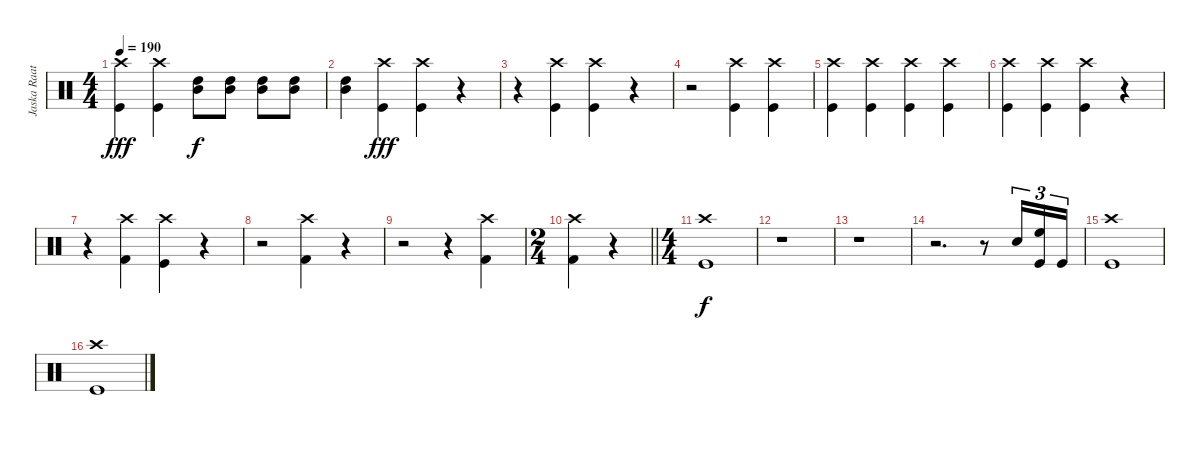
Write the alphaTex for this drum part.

\track ("Jaska Raatikainen" "Jaska Raat") {instrument percussion}
\staff {score}
\articulation defaults
\ts (4 4)
\tempo 190
\clef neutral
\ks c
("Crash high (hit)" "Kick (hit)").4{dy fff} ("Crash high (hit)" "Kick (hit)").4 ("High Tom (hit)" "Mid Tom (hit)").8{dy f} ("High Tom (hit)" "Mid Tom (hit)").8 ("High Tom (hit)" "Mid Tom (hit)").8 ("High Tom (hit)" "Mid Tom (hit)").8 |
("High Tom (hit)" "Mid Tom (hit)").4 ("Crash high (hit)" "Kick (hit)").4{dy fff} ("Crash high (hit)" "Kick (hit)").4 r.4 |
r.4 ("Crash high (hit)" "Kick (hit)").4 ("Crash high (hit)" "Kick (hit)").4 r.4 |
r.2 ("Crash high (hit)" "Kick (hit)").4 ("Crash high (hit)" "Kick (hit)").4 |
("Crash high (hit)" "Kick (hit)").4 ("Crash high (hit)" "Kick (hit)").4 ("Crash high (hit)" "Kick (hit)").4 ("Crash high (hit)" "Kick (hit)").4 |
("Crash high (hit)" "Kick (hit)").4 ("Crash high (hit)" "Kick (hit)").4 ("Crash high (hit)" "Kick (hit)").4 r.4 |
r.4 ("Crash high (hit)" "Kick (hit) 2").4 ("Crash high (hit)" "Kick (hit)").4 r.4 |
r.2 ("Crash high (hit)" "Kick (hit) 2").4 r.4 |
r.2 r.4 ("Crash high (hit)" "Kick (hit) 2").4 |
\ts (2 4)
\barLineRight lightlight
("Crash high (hit)" "Kick (hit) 2").4 r.4 |
\ts (4 4)
("Crash high (hit)" "Kick (hit)").1{dy f} |
r.1 |
r.1 |
r.2{d} r.8 "Snare (hit) 2".16{tu (3 2)} ("High Floor Tom (hit)" "Kick (hit)").16{tu (3 2)} "Kick (hit)".16{tu (3 2)} |
("Crash high (hit)" "Kick (hit)").1 |
("Crash high (hit)" "Kick (hit)").1
